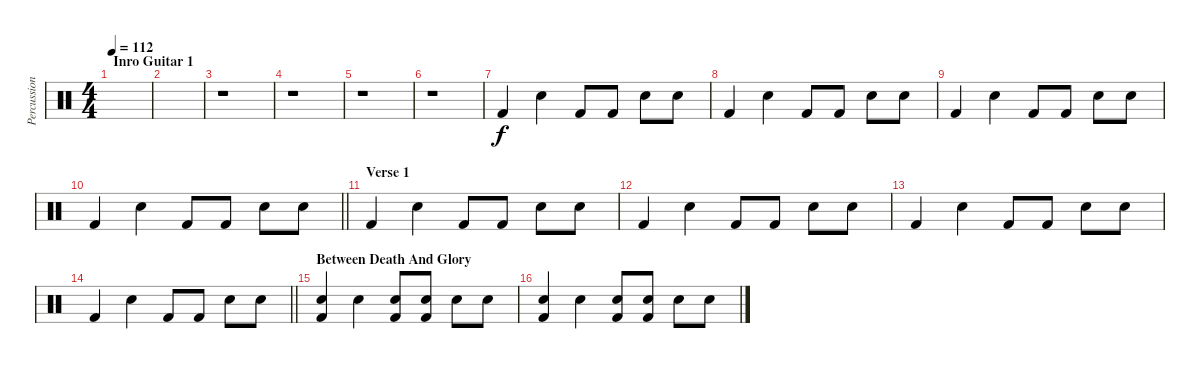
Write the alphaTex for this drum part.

\track ("Percussions" "Percussion") {instrument percussion}
\staff {score}
\articulation defaults
\ts (4 4)
\section ("" "Inro Guitar 1")
\tempo 112
\clef neutral
\ks c
|
|
r.1 |
r.1 |
r.1 |
r.1 |
"Kick (hit) 2".4 "Electric Snare (hit)".4 "Kick (hit) 2".8 "Kick (hit) 2".8 "Electric Snare (hit)".8 "Electric Snare (hit)".8 |
"Kick (hit) 2".4 "Electric Snare (hit)".4 "Kick (hit) 2".8 "Kick (hit) 2".8 "Electric Snare (hit)".8 "Electric Snare (hit)".8 |
"Kick (hit) 2".4 "Electric Snare (hit)".4 "Kick (hit) 2".8 "Kick (hit) 2".8 "Electric Snare (hit)".8 "Electric Snare (hit)".8 |
\barLineRight lightlight "Kick (hit) 2".4 "Electric Snare (hit)".4 "Kick (hit) 2".8 "Kick (hit) 2".8 "Electric Snare (hit)".8 "Electric Snare (hit)".8
|
\section ("" "Verse 1")
"Kick (hit) 2".4 "Electric Snare (hit)".4 "Kick (hit) 2".8 "Kick (hit) 2".8 "Electric Snare (hit)".8 "Electric Snare (hit)".8 |
"Kick (hit) 2".4 "Electric Snare (hit)".4 "Kick (hit) 2".8 "Kick (hit) 2".8 "Electric Snare (hit)".8 "Electric Snare (hit)".8 |
"Kick (hit) 2".4 "Electric Snare (hit)".4 "Kick (hit) 2".8 "Kick (hit) 2".8 "Electric Snare (hit)".8 "Electric Snare (hit)".8 |
\barLineRight lightlight "Kick (hit) 2".4 "Electric Snare (hit)".4 "Kick (hit) 2".8 "Kick (hit) 2".8 "Electric Snare (hit)".8 "Electric Snare (hit)".8
|
\section ("" "Between Death And Glory")
("Electric Snare (hit)" "Kick (hit) 2").4 "Electric Snare (hit)".4 ("Electric Snare (hit)" "Kick (hit) 2").8 ("Electric Snare (hit)" "Kick (hit) 2").8 "Electric Snare (hit)".8 "Electric Snare (hit)".8 |
("Electric Snare (hit)" "Kick (hit) 2").4 "Electric Snare (hit)".4 ("Electric Snare (hit)" "Kick (hit) 2").8 ("Electric Snare (hit)" "Kick (hit) 2").8 "Electric Snare (hit)".8 "Electric Snare (hit)".8
